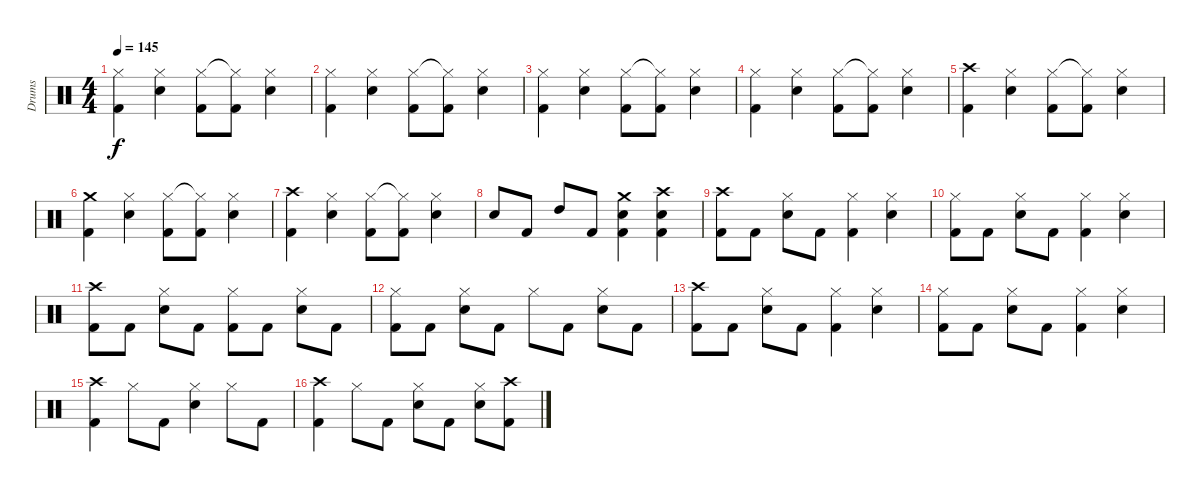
\track ("Drums" "Drums") {instrument percussion}
\staff {score}
\articulation defaults
\ts (4 4)
\tempo 145
\clef neutral
\ks c
("Hi-Hat (closed)" "Kick (hit) 2").4{dy f} ("Hi-Hat (closed)" "Electric Snare (hit)").4 ("Hi-Hat (closed)" "Kick (hit) 2").8 ("Hi-Hat (closed)"{t} "Kick (hit) 2").8 ("Hi-Hat (closed)" "Electric Snare (hit)").4 |
("Hi-Hat (closed)" "Kick (hit) 2").4 ("Hi-Hat (closed)" "Electric Snare (hit)").4 ("Hi-Hat (closed)" "Kick (hit) 2").8 ("Hi-Hat (closed)"{t} "Kick (hit) 2").8 ("Hi-Hat (closed)" "Electric Snare (hit)").4 |
("Hi-Hat (closed)" "Kick (hit) 2").4 ("Hi-Hat (closed)" "Electric Snare (hit)").4 ("Hi-Hat (closed)" "Kick (hit) 2").8 ("Hi-Hat (closed)"{t} "Kick (hit) 2").8 ("Hi-Hat (closed)" "Electric Snare (hit)").4 |
("Hi-Hat (closed)" "Kick (hit) 2").4 ("Hi-Hat (closed)" "Electric Snare (hit)").4 ("Hi-Hat (closed)" "Kick (hit) 2").8 ("Hi-Hat (closed)"{t} "Kick (hit) 2").8 ("Hi-Hat (closed)" "Electric Snare (hit)").4 |
("Crash high (hit)" "Kick (hit) 2").4 ("Hi-Hat (closed)" "Electric Snare (hit)").4 ("Hi-Hat (closed)" "Kick (hit) 2").8 ("Hi-Hat (closed)"{t} "Kick (hit) 2").8 ("Hi-Hat (closed)" "Electric Snare (hit)").4 |
("Crash medium (hit)" "Kick (hit) 2").4 ("Hi-Hat (closed)" "Electric Snare (hit)").4 ("Hi-Hat (closed)" "Kick (hit) 2").8 ("Hi-Hat (closed)"{t} "Kick (hit) 2").8 ("Hi-Hat (closed)" "Electric Snare (hit)").4 |
("Crash high (hit)" "Kick (hit) 2").4 ("Hi-Hat (closed)" "Electric Snare (hit)").4 ("Hi-Hat (closed)" "Kick (hit) 2").8 ("Hi-Hat (closed)"{t} "Kick (hit) 2").8 ("Hi-Hat (closed)" "Electric Snare (hit)").4 |
"Electric Snare (hit)".8 "Kick (hit) 2".8 "High Tom (hit)".8 "Kick (hit) 2".8 ("Crash medium (hit)" "Electric Snare (hit)" "Kick (hit) 2").4 ("Crash high (hit)" "Electric Snare (hit)" "Kick (hit) 2").4 |
("Crash high (hit)" "Kick (hit) 2").8 "Kick (hit) 2".8 ("Hi-Hat (closed)" "Electric Snare (hit)").8 "Kick (hit) 2".8 ("Hi-Hat (closed)" "Kick (hit) 2").4 ("Hi-Hat (closed)" "Electric Snare (hit)").4 |
("Hi-Hat (closed)" "Kick (hit) 2").8 "Kick (hit) 2".8 ("Hi-Hat (closed)" "Electric Snare (hit)").8 "Kick (hit) 2".8 ("Hi-Hat (closed)" "Kick (hit) 2").4 ("Hi-Hat (closed)" "Electric Snare (hit)").4 |
("Crash high (hit)" "Kick (hit) 2").8 "Kick (hit) 2".8 ("Hi-Hat (closed)" "Electric Snare (hit)").8 "Kick (hit) 2".8 ("Hi-Hat (closed)" "Kick (hit) 2").8 "Kick (hit) 2".8 ("Hi-Hat (closed)" "Electric Snare (hit)").8 "Kick (hit) 2".8 |
("Hi-Hat (closed)" "Kick (hit) 2").8 "Kick (hit) 2".8 ("Hi-Hat (closed)" "Electric Snare (hit)").8 "Kick (hit) 2".8 "Hi-Hat (closed)".8 "Kick (hit) 2".8 ("Hi-Hat (closed)" "Electric Snare (hit)").8 "Kick (hit) 2".8 |
("Crash high (hit)" "Kick (hit) 2").8 "Kick (hit) 2".8 ("Hi-Hat (closed)" "Electric Snare (hit)").8 "Kick (hit) 2".8 ("Hi-Hat (closed)" "Kick (hit) 2").4 ("Hi-Hat (closed)" "Electric Snare (hit)").4 |
("Hi-Hat (closed)" "Kick (hit) 2").8 "Kick (hit) 2".8 ("Hi-Hat (closed)" "Electric Snare (hit)").8 "Kick (hit) 2".8 ("Hi-Hat (closed)" "Kick (hit) 2").4 ("Hi-Hat (closed)" "Electric Snare (hit)").4 |
("Crash high (hit)" "Kick (hit) 2").4 "Hi-Hat (closed)".8 "Kick (hit) 2".8 ("Hi-Hat (closed)" "Electric Snare (hit)").4 "Hi-Hat (closed)".8 "Kick (hit) 2".8 |
("Crash high (hit)" "Kick (hit) 2").4 "Hi-Hat (closed)".8 "Kick (hit) 2".8 ("Hi-Hat (closed)" "Electric Snare (hit)").8 "Kick (hit) 2".8 ("Hi-Hat (closed)" "Electric Snare (hit)").8 ("Crash high (hit)" "Kick (hit) 2").8
